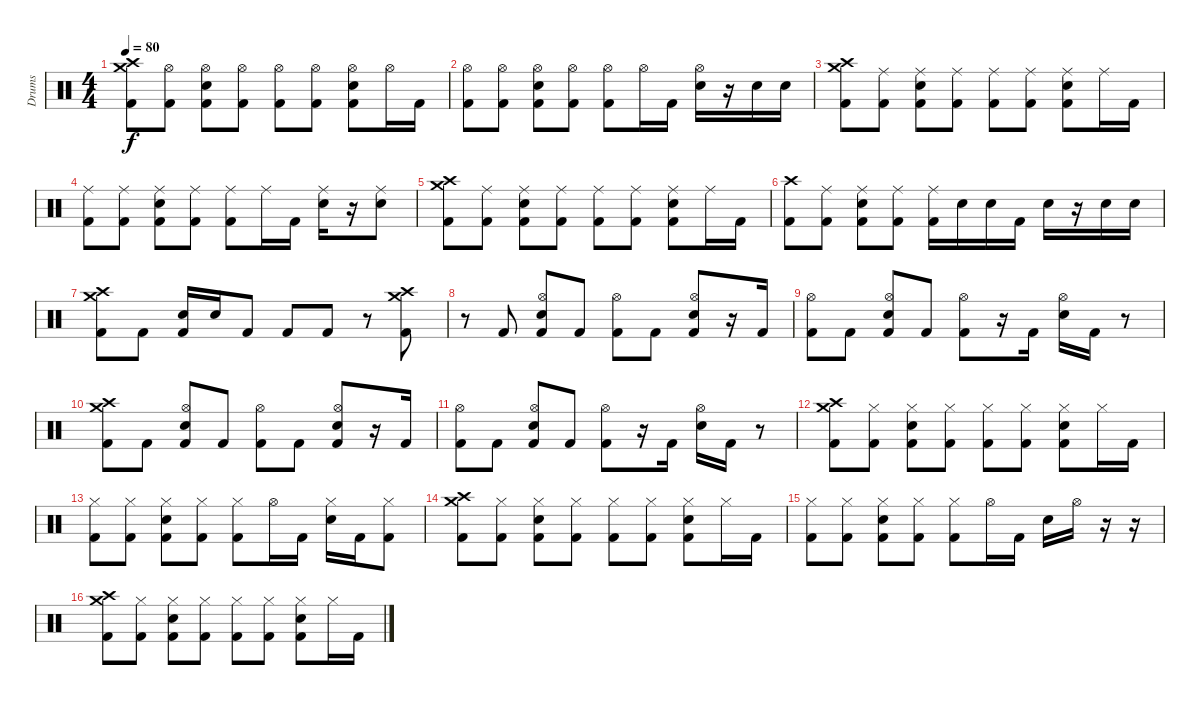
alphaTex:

\track ("Drums" "Drums") {instrument percussion}
\staff {score}
\articulation defaults
\ts (4 4)
\tempo 80
\clef neutral
\ks c
("Crash high (hit)" "Crash medium (hit)" "Kick (hit) 2").8{dy f} ("Hi-Hat (open)" "Kick (hit) 2").8 ("Hi-Hat (open)" "Electric Snare (hit)" "Kick (hit) 2").8 ("Hi-Hat (open)" "Kick (hit) 2").8 ("Hi-Hat (open)" "Kick (hit) 2").8 ("Hi-Hat (open)" "Kick (hit) 2").8 ("Hi-Hat (open)" "Electric Snare (hit)" "Kick (hit) 2").8 "Hi-Hat (open)".16 "Kick (hit) 2".16 |
("Hi-Hat (open)" "Kick (hit) 2").8 ("Hi-Hat (open)" "Kick (hit) 2").8 ("Hi-Hat (open)" "Electric Snare (hit)" "Kick (hit) 2").8 ("Hi-Hat (open)" "Kick (hit) 2").8 ("Hi-Hat (open)" "Kick (hit) 2").8 "Hi-Hat (open)".16 "Kick (hit) 2".16 ("Hi-Hat (open)" "Electric Snare (hit)").16 r.16 "Electric Snare (hit)".16 "Electric Snare (hit)".16 |
("Crash high (hit)" "Crash medium (hit)" "Kick (hit) 2").8 ("Ride (middle)" "Kick (hit) 2").8 ("Ride (middle)" "Electric Snare (hit)" "Kick (hit) 2").8 ("Ride (middle)" "Kick (hit) 2").8 ("Ride (middle)" "Kick (hit) 2").8 ("Ride (middle)" "Kick (hit) 2").8 ("Ride (middle)" "Electric Snare (hit)" "Kick (hit) 2").8 "Ride (middle)".16 "Kick (hit) 2".16 |
("Ride (middle)" "Kick (hit) 2").8 ("Ride (middle)" "Kick (hit) 2").8 ("Ride (middle)" "Electric Snare (hit)" "Kick (hit) 2").8 ("Ride (middle)" "Kick (hit) 2").8 ("Ride (middle)" "Kick (hit) 2").8 "Ride (middle)".16 "Kick (hit) 2".16 ("Ride (middle)" "Electric Snare (hit)").16 r.16 ("Ride (middle)" "Electric Snare (hit)").8 |
("Crash high (hit)" "Crash medium (hit)" "Kick (hit) 2").8 ("Ride (middle)" "Kick (hit) 2").8 ("Ride (middle)" "Electric Snare (hit)" "Kick (hit) 2").8 ("Ride (middle)" "Kick (hit) 2").8 ("Ride (middle)" "Kick (hit) 2").8 ("Ride (middle)" "Kick (hit) 2").8 ("Ride (middle)" "Electric Snare (hit)" "Kick (hit) 2").8 "Ride (middle)".16 "Kick (hit) 2".16 |
("Crash high (hit)" "Kick (hit) 2").8 ("Ride (middle)" "Kick (hit) 2").8 ("Ride (middle)" "Electric Snare (hit)" "Kick (hit) 2").8 ("Ride (middle)" "Kick (hit) 2").8 ("Ride (middle)" "Kick (hit) 2").16 "Electric Snare (hit)".16 "Electric Snare (hit)".16 "Kick (hit) 2".16 "Electric Snare (hit)".16 r.16 "Electric Snare (hit)".16 "Electric Snare (hit)".16 |
("Crash high (hit)" "Crash medium (hit)" "Kick (hit) 2").8 "Kick (hit) 2".8 ("Electric Snare (hit)" "Kick (hit) 2").16 "Electric Snare (hit)".16 "Kick (hit) 2".8 "Kick (hit) 2".8 "Kick (hit) 2".8 r.8 ("Crash high (hit)" "Crash medium (hit)" "Kick (hit) 2").8 |
r.8 "Kick (hit) 2".8 ("Hi-Hat (open)" "Electric Snare (hit)" "Kick (hit) 2").8 "Kick (hit) 2".8 ("Hi-Hat (open)" "Kick (hit) 2").8 "Kick (hit) 2".8 ("Hi-Hat (open)" "Electric Snare (hit)" "Kick (hit) 2").8 r.16 "Kick (hit) 2".16 |
("Hi-Hat (open)" "Kick (hit) 2").8 "Kick (hit) 2".8 ("Hi-Hat (open)" "Electric Snare (hit)" "Kick (hit) 2").8 "Kick (hit) 2".8 ("Hi-Hat (open)" "Kick (hit) 2").8 r.16 "Kick (hit) 2".16 ("Hi-Hat (open)" "Electric Snare (hit)").16 "Kick (hit) 2".16 r.8 |
("Crash high (hit)" "Crash medium (hit)" "Kick (hit) 2").8 "Kick (hit) 2".8 ("Hi-Hat (open)" "Electric Snare (hit)" "Kick (hit) 2").8 "Kick (hit) 2".8 ("Hi-Hat (open)" "Kick (hit) 2").8 "Kick (hit) 2".8 ("Hi-Hat (open)" "Electric Snare (hit)" "Kick (hit) 2").8 r.16 "Kick (hit) 2".16 |
("Hi-Hat (open)" "Kick (hit) 2").8 "Kick (hit) 2".8 ("Hi-Hat (open)" "Electric Snare (hit)" "Kick (hit) 2").8 "Kick (hit) 2".8 ("Hi-Hat (open)" "Kick (hit) 2").8 r.16 "Kick (hit) 2".16 ("Hi-Hat (open)" "Electric Snare (hit)").16 "Kick (hit) 2".16 r.8 |
("Crash high (hit)" "Crash medium (hit)" "Kick (hit) 2").8 ("Hi-Hat (closed)" "Kick (hit) 2").8 ("Hi-Hat (closed)" "Electric Snare (hit)" "Kick (hit) 2").8 ("Hi-Hat (closed)" "Kick (hit) 2").8 ("Hi-Hat (closed)" "Kick (hit) 2").8 ("Hi-Hat (closed)" "Kick (hit) 2").8 ("Hi-Hat (closed)" "Electric Snare (hit)" "Kick (hit) 2").8 "Hi-Hat (closed)".16 "Kick (hit) 2".16 |
("Hi-Hat (closed)" "Kick (hit) 2").8 ("Hi-Hat (closed)" "Kick (hit) 2").8 ("Hi-Hat (closed)" "Electric Snare (hit)" "Kick (hit) 2").8 ("Hi-Hat (closed)" "Kick (hit) 2").8 ("Hi-Hat (closed)" "Kick (hit) 2").8 "Hi-Hat (open)".16 "Kick (hit) 2".16 ("Hi-Hat (closed)" "Electric Snare (hit)").16 "Kick (hit) 2".16 ("Hi-Hat (closed)" "Kick (hit) 2").8 |
("Crash high (hit)" "Crash medium (hit)" "Kick (hit) 2").8 ("Hi-Hat (closed)" "Kick (hit) 2").8 ("Hi-Hat (closed)" "Electric Snare (hit)" "Kick (hit) 2").8 ("Hi-Hat (closed)" "Kick (hit) 2").8 ("Hi-Hat (closed)" "Kick (hit) 2").8 ("Hi-Hat (closed)" "Kick (hit) 2").8 ("Hi-Hat (closed)" "Electric Snare (hit)" "Kick (hit) 2").8 "Hi-Hat (closed)".16 "Kick (hit) 2".16 |
("Hi-Hat (closed)" "Kick (hit) 2").8 ("Hi-Hat (closed)" "Kick (hit) 2").8 ("Hi-Hat (closed)" "Electric Snare (hit)" "Kick (hit) 2").8 ("Hi-Hat (closed)" "Kick (hit) 2").8 ("Hi-Hat (closed)" "Kick (hit) 2").8 "Hi-Hat (open)".16 "Kick (hit) 2".16 "Electric Snare (hit)".16 "Hi-Hat (open)".16 r.16 r.16 |
("Crash high (hit)" "Crash medium (hit)" "Kick (hit) 2").8 ("Hi-Hat (closed)" "Kick (hit) 2").8 ("Hi-Hat (closed)" "Electric Snare (hit)" "Kick (hit) 2").8 ("Hi-Hat (closed)" "Kick (hit) 2").8 ("Hi-Hat (closed)" "Kick (hit) 2").8 ("Hi-Hat (closed)" "Kick (hit) 2").8 ("Hi-Hat (closed)" "Electric Snare (hit)" "Kick (hit) 2").8 "Hi-Hat (closed)".16 "Kick (hit) 2".16
